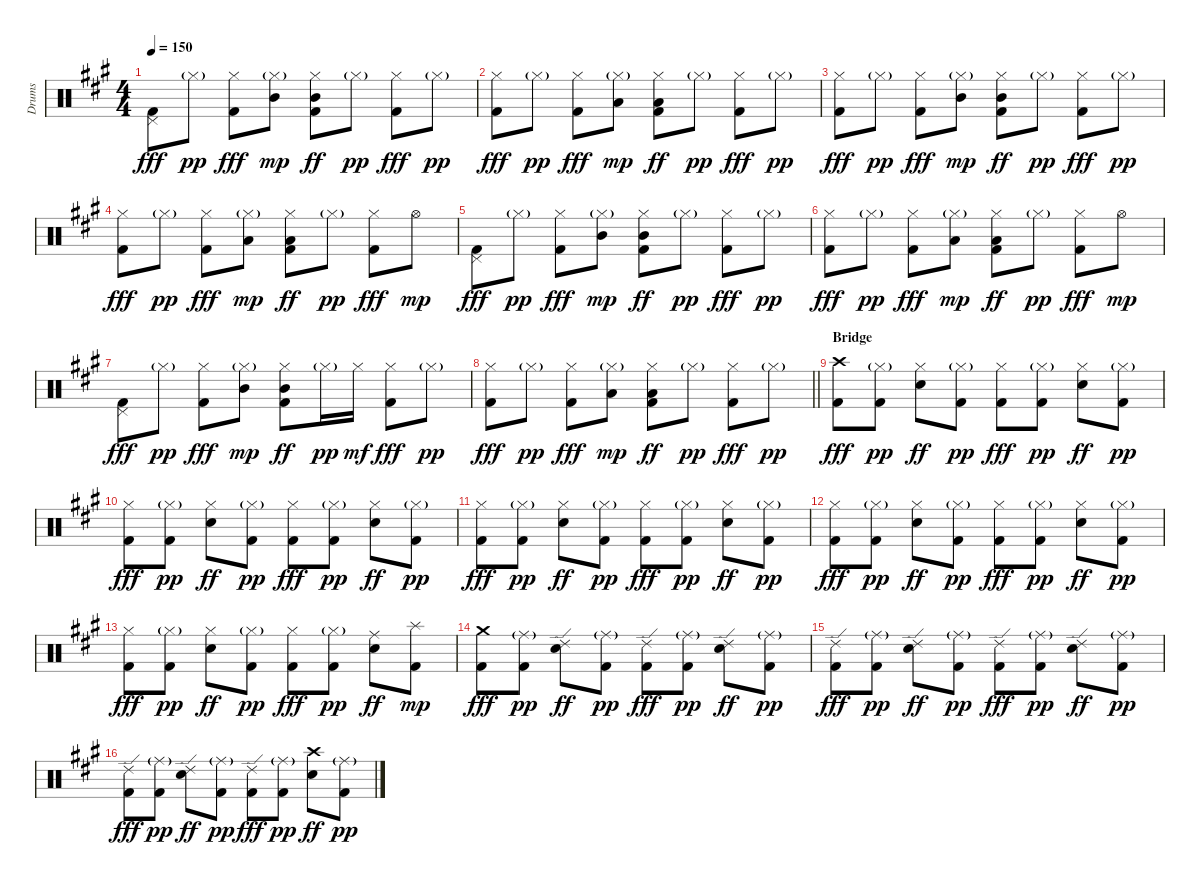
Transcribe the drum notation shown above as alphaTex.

\track ("Drums" "Drums") {instrument percussion}
\staff {score}
\articulation defaults
\ts (4 4)
\tempo 150
\clef neutral
\ks a
("Kick (hit) 2" "Pedal Hi-Hat (hit)").8{dy fff} "Hi-Hat (closed)"{g}.8{dy pp} ("Kick (hit) 2" "Hi-Hat (closed)").8{dy fff} ("Hi-Hat (closed)"{g} "Mid Tom (hit)").8{dy mp} ("Kick (hit) 2" "Hi-Hat (closed)" "Mid Tom (hit)").8{dy ff} "Hi-Hat (closed)"{g}.8{dy pp} ("Kick (hit) 2" "Hi-Hat (closed)").8{dy fff} "Hi-Hat (closed)"{g}.8{dy pp} |
("Kick (hit) 2" "Hi-Hat (closed)").8{dy fff} "Hi-Hat (closed)"{g}.8{dy pp} ("Kick (hit) 2" "Hi-Hat (closed)").8{dy fff} ("Hi-Hat (closed)"{g} "Low Tom (hit)").8{dy mp} ("Kick (hit) 2" "Hi-Hat (closed)" "Low Tom (hit)").8{dy ff} "Hi-Hat (closed)"{g}.8{dy pp} ("Kick (hit) 2" "Hi-Hat (closed)").8{dy fff} "Hi-Hat (closed)"{g}.8{dy pp} |
("Kick (hit) 2" "Hi-Hat (closed)").8{dy fff} "Hi-Hat (closed)"{g}.8{dy pp} ("Kick (hit) 2" "Hi-Hat (closed)").8{dy fff} ("Hi-Hat (closed)"{g} "Mid Tom (hit)").8{dy mp} ("Kick (hit) 2" "Hi-Hat (closed)" "Mid Tom (hit)").8{dy ff} "Hi-Hat (closed)"{g}.8{dy pp} ("Kick (hit) 2" "Hi-Hat (closed)").8{dy fff} "Hi-Hat (closed)"{g}.8{dy pp} |
("Kick (hit) 2" "Hi-Hat (closed)").8{dy fff} "Hi-Hat (closed)"{g}.8{dy pp} ("Kick (hit) 2" "Hi-Hat (closed)").8{dy fff} ("Hi-Hat (closed)"{g} "Low Tom (hit)").8{dy mp} ("Kick (hit) 2" "Hi-Hat (closed)" "Low Tom (hit)").8{dy ff} "Hi-Hat (closed)"{g}.8{dy pp} ("Kick (hit) 2" "Hi-Hat (closed)").8{dy fff} "Hi-Hat (open)".8{dy mp} |
("Kick (hit) 2" "Pedal Hi-Hat (hit)").8{dy fff} "Hi-Hat (closed)"{g}.8{dy pp} ("Kick (hit) 2" "Hi-Hat (closed)").8{dy fff} ("Hi-Hat (closed)"{g} "Mid Tom (hit)").8{dy mp} ("Kick (hit) 2" "Hi-Hat (closed)" "Mid Tom (hit)").8{dy ff} "Hi-Hat (closed)"{g}.8{dy pp} ("Kick (hit) 2" "Hi-Hat (closed)").8{dy fff} "Hi-Hat (closed)"{g}.8{dy pp} |
("Kick (hit) 2" "Hi-Hat (closed)").8{dy fff} "Hi-Hat (closed)"{g}.8{dy pp} ("Kick (hit) 2" "Hi-Hat (closed)").8{dy fff} ("Hi-Hat (closed)"{g} "Low Tom (hit)").8{dy mp} ("Kick (hit) 2" "Hi-Hat (closed)" "Low Tom (hit)").8{dy ff} "Hi-Hat (closed)"{g}.8{dy pp} ("Kick (hit) 2" "Hi-Hat (closed)").8{dy fff} "Hi-Hat (open)".8{dy mp} |
("Kick (hit) 2" "Pedal Hi-Hat (hit)").8{dy fff} "Hi-Hat (closed)"{g}.8{dy pp} ("Kick (hit) 2" "Hi-Hat (closed)").8{dy fff} ("Hi-Hat (closed)"{g} "Mid Tom (hit)").8{dy mp} ("Kick (hit) 2" "Hi-Hat (closed)" "Mid Tom (hit)").8{dy ff} "Hi-Hat (closed)"{g}.16{dy pp} "Hi-Hat (closed)".16{dy mf} ("Kick (hit) 2" "Hi-Hat (closed)").8{dy fff} "Hi-Hat (closed)"{g}.8{dy pp} |
\barLineRight lightlight
("Kick (hit) 2" "Hi-Hat (closed)").8{dy fff} "Hi-Hat (closed)"{g}.8{dy pp} ("Kick (hit) 2" "Hi-Hat (closed)").8{dy fff} ("Hi-Hat (closed)"{g} "Low Tom (hit)").8{dy mp} ("Kick (hit) 2" "Hi-Hat (closed)" "Low Tom (hit)").8{dy ff} "Hi-Hat (closed)"{g}.8{dy pp} ("Kick (hit) 2" "Hi-Hat (closed)").8{dy fff} "Hi-Hat (closed)"{g}.8{dy pp} |
\section ("" "Bridge")
("Kick (hit) 2" "Crash high (hit)").8{dy fff} ("Kick (hit) 2" "Hi-Hat (closed)"{g}).8{dy pp} ("Electric Snare (hit)" "Hi-Hat (closed)").8{dy ff} ("Kick (hit) 2" "Hi-Hat (closed)"{g}).8{dy pp} ("Kick (hit) 2" "Hi-Hat (closed)").8{dy fff} ("Kick (hit) 2" "Hi-Hat (closed)"{g}).8{dy pp} ("Electric Snare (hit)" "Hi-Hat (closed)").8{dy ff} ("Kick (hit) 2" "Hi-Hat (closed)"{g}).8{dy pp} |
("Kick (hit) 2" "Hi-Hat (closed)").8{dy fff} ("Kick (hit) 2" "Hi-Hat (closed)"{g}).8{dy pp} ("Electric Snare (hit)" "Hi-Hat (closed)").8{dy ff} ("Kick (hit) 2" "Hi-Hat (closed)"{g}).8{dy pp} ("Kick (hit) 2" "Hi-Hat (closed)").8{dy fff} ("Kick (hit) 2" "Hi-Hat (closed)"{g}).8{dy pp} ("Electric Snare (hit)" "Hi-Hat (closed)").8{dy ff} ("Kick (hit) 2" "Hi-Hat (closed)"{g}).8{dy pp} |
("Kick (hit) 2" "Hi-Hat (closed)").8{dy fff} ("Kick (hit) 2" "Hi-Hat (closed)"{g}).8{dy pp} ("Electric Snare (hit)" "Hi-Hat (closed)").8{dy ff} ("Kick (hit) 2" "Hi-Hat (closed)"{g}).8{dy pp} ("Kick (hit) 2" "Hi-Hat (closed)").8{dy fff} ("Kick (hit) 2" "Hi-Hat (closed)"{g}).8{dy pp} ("Electric Snare (hit)" "Hi-Hat (closed)").8{dy ff} ("Kick (hit) 2" "Hi-Hat (closed)"{g}).8{dy pp} |
("Kick (hit) 2" "Hi-Hat (closed)").8{dy fff} ("Kick (hit) 2" "Hi-Hat (closed)"{g}).8{dy pp} ("Electric Snare (hit)" "Hi-Hat (closed)").8{dy ff} ("Kick (hit) 2" "Hi-Hat (closed)"{g}).8{dy pp} ("Kick (hit) 2" "Hi-Hat (closed)").8{dy fff} ("Kick (hit) 2" "Hi-Hat (closed)"{g}).8{dy pp} ("Electric Snare (hit)" "Hi-Hat (closed)").8{dy ff} ("Kick (hit) 2" "Hi-Hat (closed)"{g}).8{dy pp} |
("Kick (hit) 2" "Hi-Hat (closed)").8{dy fff} ("Kick (hit) 2" "Hi-Hat (closed)"{g}).8{dy pp} ("Electric Snare (hit)" "Hi-Hat (closed)").8{dy ff} ("Kick (hit) 2" "Hi-Hat (closed)"{g}).8{dy pp} ("Kick (hit) 2" "Hi-Hat (closed)").8{dy fff} ("Kick (hit) 2" "Hi-Hat (closed)"{g}).8{dy pp} ("Electric Snare (hit)" "Ride (middle)").8{dy ff} ("Kick (hit) 2" "Splash (hit)").8{dy mp} |
("Kick (hit) 2" "Crash medium (hit)").8{dy fff} ("Kick (hit) 2" "Ride (middle)"{g}).8{dy pp} ("Electric Snare (hit)" "Ride (edge) 2").8{dy ff} ("Kick (hit) 2" "Ride (middle)"{g}).8{dy pp} ("Kick (hit) 2" "Ride (edge) 2").8{dy fff} ("Kick (hit) 2" "Ride (middle)"{g}).8{dy pp} ("Electric Snare (hit)" "Ride (edge) 2").8{dy ff} ("Kick (hit) 2" "Ride (middle)"{g}).8{dy pp} |
("Kick (hit) 2" "Ride (edge) 2").8{dy fff} ("Kick (hit) 2" "Ride (middle)"{g}).8{dy pp} ("Electric Snare (hit)" "Ride (edge) 2").8{dy ff} ("Kick (hit) 2" "Ride (middle)"{g}).8{dy pp} ("Kick (hit) 2" "Ride (edge) 2").8{dy fff} ("Kick (hit) 2" "Ride (middle)"{g}).8{dy pp} ("Electric Snare (hit)" "Ride (edge) 2").8{dy ff} ("Kick (hit) 2" "Ride (middle)"{g}).8{dy pp} |
("Kick (hit) 2" "Ride (edge) 2").8{dy fff} ("Kick (hit) 2" "Ride (middle)"{g}).8{dy pp} ("Electric Snare (hit)" "Ride (edge) 2").8{dy ff} ("Kick (hit) 2" "Ride (middle)"{g}).8{dy pp} ("Kick (hit) 2" "Ride (edge) 2").8{dy fff} ("Kick (hit) 2" "Ride (middle)"{g}).8{dy pp} ("Electric Snare (hit)" "Crash high (hit)").8{dy ff} ("Kick (hit) 2" "Ride (middle)"{g}).8{dy pp}
